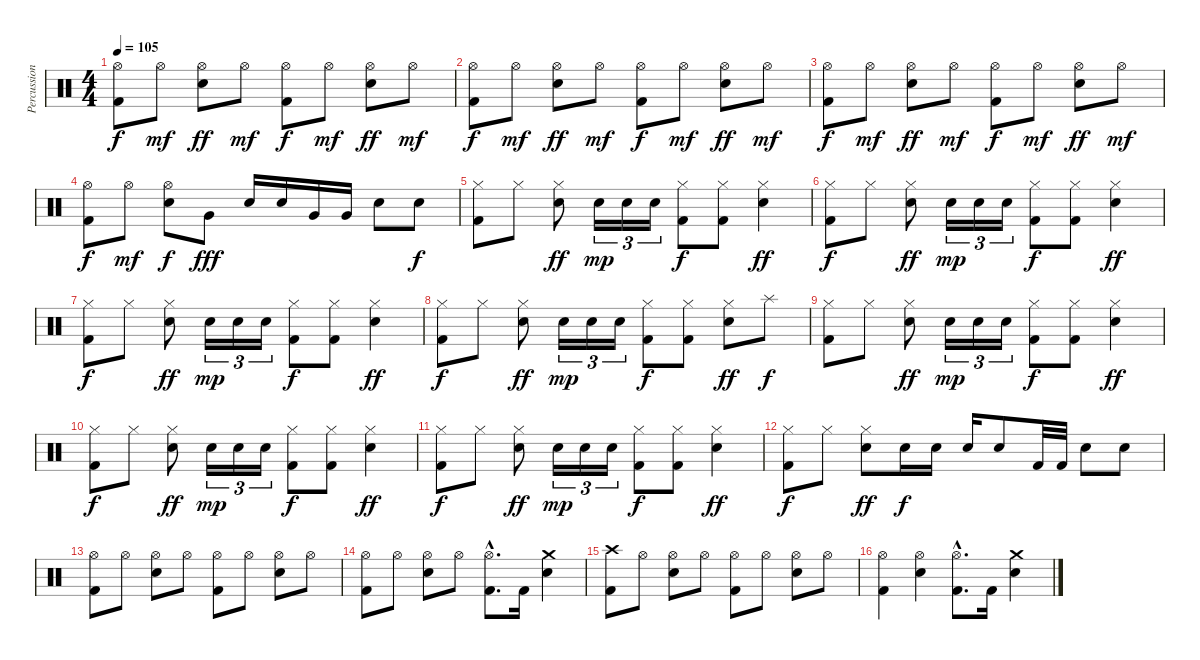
\track ("Percussion" "Percussion") {instrument percussion}
\staff {score}
\articulation defaults
\ts (4 4)
\tempo 105
\clef neutral
\ks c
("Hi-Hat (open)" "Kick (hit) 2").8{dy f} "Hi-Hat (open)".8{dy mf} ("Hi-Hat (open)" "Snare (hit) 2").8{dy ff} "Hi-Hat (open)".8{dy mf} ("Hi-Hat (open)" "Kick (hit) 2").8{dy f} "Hi-Hat (open)".8{dy mf} ("Hi-Hat (open)" "Snare (hit) 2").8{dy ff} "Hi-Hat (open)".8{dy mf} |
("Hi-Hat (open)" "Kick (hit) 2").8{dy f} "Hi-Hat (open)".8{dy mf} ("Hi-Hat (open)" "Snare (hit) 2").8{dy ff} "Hi-Hat (open)".8{dy mf} ("Hi-Hat (open)" "Kick (hit) 2").8{dy f} "Hi-Hat (open)".8{dy mf} ("Hi-Hat (open)" "Snare (hit) 2").8{dy ff} "Hi-Hat (open)".8{dy mf} |
("Hi-Hat (open)" "Kick (hit) 2").8{dy f} "Hi-Hat (open)".8{dy mf} ("Hi-Hat (open)" "Snare (hit) 2").8{dy ff} "Hi-Hat (open)".8{dy mf} ("Hi-Hat (open)" "Kick (hit) 2").8{dy f} "Hi-Hat (open)".8{dy mf} ("Hi-Hat (open)" "Snare (hit) 2").8{dy ff} "Hi-Hat (open)".8{dy mf} |
("Hi-Hat (open)" "Kick (hit) 2").8{dy f} "Hi-Hat (open)".8{dy mf} ("Hi-Hat (open)" "Snare (hit) 2").8{dy f} "Very Low Tom (hit)".8{dy fff} "Snare (hit) 2".16 "Snare (hit) 2".16 "Very Low Tom (hit)".16 "Very Low Tom (hit)".16 "Snare (hit) 2".8 "Snare (hit) 2".8{dy f} |
("Hi-Hat (closed)" "Kick (hit) 2").8 "Hi-Hat (closed)".8 ("Hi-Hat (closed)" "Snare (hit) 2").8{dy ff} "Snare (hit) 2".16{tu (3 2) dy mp} "Snare (hit) 2".16{tu (3 2)} "Snare (hit) 2".16{tu (3 2)} ("Hi-Hat (closed)" "Kick (hit) 2").8{dy f} ("Hi-Hat (closed)" "Kick (hit) 2").8 ("Hi-Hat (closed)" "Snare (hit) 2").4{dy ff} |
("Hi-Hat (closed)" "Kick (hit) 2").8{dy f} "Hi-Hat (closed)".8 ("Hi-Hat (closed)" "Snare (hit) 2").8{dy ff} "Snare (hit) 2".16{tu (3 2) dy mp} "Snare (hit) 2".16{tu (3 2)} "Snare (hit) 2".16{tu (3 2)} ("Hi-Hat (closed)" "Kick (hit) 2").8{dy f} ("Hi-Hat (closed)" "Kick (hit) 2").8 ("Hi-Hat (closed)" "Snare (hit) 2").4{dy ff} |
("Hi-Hat (closed)" "Kick (hit) 2").8{dy f} "Hi-Hat (closed)".8 ("Hi-Hat (closed)" "Snare (hit) 2").8{dy ff} "Snare (hit) 2".16{tu (3 2) dy mp} "Snare (hit) 2".16{tu (3 2)} "Snare (hit) 2".16{tu (3 2)} ("Hi-Hat (closed)" "Kick (hit) 2").8{dy f} ("Hi-Hat (closed)" "Kick (hit) 2").8 ("Hi-Hat (closed)" "Snare (hit) 2").4{dy ff} |
("Hi-Hat (closed)" "Kick (hit) 2").8{dy f} "Hi-Hat (closed)".8 ("Hi-Hat (closed)" "Snare (hit) 2").8{dy ff} "Snare (hit) 2".16{tu (3 2) dy mp} "Snare (hit) 2".16{tu (3 2)} "Snare (hit) 2".16{tu (3 2)} ("Hi-Hat (closed)" "Kick (hit) 2").8{dy f} ("Hi-Hat (closed)" "Kick (hit) 2").8 ("Hi-Hat (closed)" "Snare (hit) 2").8{dy ff} "Splash (hit)".8{dy f} |
("Hi-Hat (closed)" "Kick (hit) 2").8 "Hi-Hat (closed)".8 ("Hi-Hat (closed)" "Snare (hit) 2").8{dy ff} "Snare (hit) 2".16{tu (3 2) dy mp} "Snare (hit) 2".16{tu (3 2)} "Snare (hit) 2".16{tu (3 2)} ("Hi-Hat (closed)" "Kick (hit) 2").8{dy f} ("Hi-Hat (closed)" "Kick (hit) 2").8 ("Hi-Hat (closed)" "Snare (hit) 2").4{dy ff} |
("Hi-Hat (closed)" "Kick (hit) 2").8{dy f} "Hi-Hat (closed)".8 ("Hi-Hat (closed)" "Snare (hit) 2").8{dy ff} "Snare (hit) 2".16{tu (3 2) dy mp} "Snare (hit) 2".16{tu (3 2)} "Snare (hit) 2".16{tu (3 2)} ("Hi-Hat (closed)" "Kick (hit) 2").8{dy f} ("Hi-Hat (closed)" "Kick (hit) 2").8 ("Hi-Hat (closed)" "Snare (hit) 2").4{dy ff} |
("Hi-Hat (closed)" "Kick (hit) 2").8{dy f} "Hi-Hat (closed)".8 ("Hi-Hat (closed)" "Snare (hit) 2").8{dy ff} "Snare (hit) 2".16{tu (3 2) dy mp} "Snare (hit) 2".16{tu (3 2)} "Snare (hit) 2".16{tu (3 2)} ("Hi-Hat (closed)" "Kick (hit) 2").8{dy f} ("Hi-Hat (closed)" "Kick (hit) 2").8 ("Hi-Hat (closed)" "Snare (hit) 2").4{dy ff} |
("Hi-Hat (closed)" "Kick (hit) 2").8{dy f} "Hi-Hat (closed)".8 ("Hi-Hat (closed)" "Snare (hit) 2").8{dy ff} "Snare (hit) 2".16{dy f} "Snare (hit) 2".16 "Snare (hit) 2".16 "Snare (hit) 2".8 "Kick (hit) 2".32 "Kick (hit) 2".32 "Snare (hit) 2".8 "Snare (hit) 2".8 |
("Hi-Hat (open)" "Kick (hit) 2").8 "Hi-Hat (open)".8 ("Hi-Hat (open)" "Snare (hit) 2").8 "Hi-Hat (open)".8 ("Hi-Hat (open)" "Kick (hit) 2").8 "Hi-Hat (open)".8 ("Hi-Hat (open)" "Snare (hit) 2").8 "Hi-Hat (open)".8 |
("Hi-Hat (open)" "Kick (hit) 2").8 "Hi-Hat (open)".8 ("Hi-Hat (open)" "Snare (hit) 2").8 "Hi-Hat (open)".8 ("Hi-Hat (open)"{hac} "Kick (hit) 2"{hac}).8{d} "Kick (hit) 2".16 ("Crash medium (hit)" "Snare (hit) 2").4 |
("Crash high (hit)" "Kick (hit) 2").8 "Hi-Hat (open)".8 ("Hi-Hat (open)" "Snare (hit) 2").8 "Hi-Hat (open)".8 ("Hi-Hat (open)" "Kick (hit) 2").8 "Hi-Hat (open)".8 ("Hi-Hat (open)" "Snare (hit) 2").8 "Hi-Hat (open)".8 |
("Hi-Hat (open)" "Kick (hit) 2").4 ("Hi-Hat (open)" "Snare (hit) 2").4 ("Hi-Hat (open)"{hac} "Kick (hit) 2"{hac}).8{d} "Kick (hit) 2".16 ("Crash medium (hit)" "Snare (hit) 2").4
